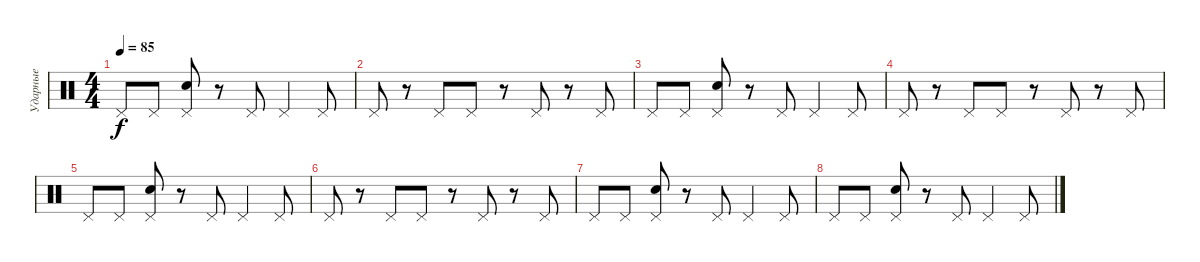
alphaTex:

\track ("Ударные" "Ударные") {instrument percussion}
\staff {score}
\articulation defaults
\ts (4 4)
\tempo 85
\clef neutral
\ks c "Pedal Hi-Hat (hit)".8{dy f} "Pedal Hi-Hat (hit)".8
("Pedal Hi-Hat (hit)" "Electric Snare (hit)").8 r.8 "Pedal Hi-Hat (hit)".8 "Pedal Hi-Hat (hit)".4 "Pedal Hi-Hat (hit)".8 |
"Pedal Hi-Hat (hit)".8 r.8 "Pedal Hi-Hat (hit)".8 "Pedal Hi-Hat (hit)".8 r.8 "Pedal Hi-Hat (hit)".8 r.8 "Pedal Hi-Hat (hit)".8 |
"Pedal Hi-Hat (hit)".8 "Pedal Hi-Hat (hit)".8 ("Pedal Hi-Hat (hit)" "Electric Snare (hit)").8 r.8 "Pedal Hi-Hat (hit)".8 "Pedal Hi-Hat (hit)".4 "Pedal Hi-Hat (hit)".8 |
"Pedal Hi-Hat (hit)".8 r.8 "Pedal Hi-Hat (hit)".8 "Pedal Hi-Hat (hit)".8 r.8 "Pedal Hi-Hat (hit)".8 r.8 "Pedal Hi-Hat (hit)".8 |
"Pedal Hi-Hat (hit)".8 "Pedal Hi-Hat (hit)".8 ("Pedal Hi-Hat (hit)" "Electric Snare (hit)").8 r.8 "Pedal Hi-Hat (hit)".8 "Pedal Hi-Hat (hit)".4 "Pedal Hi-Hat (hit)".8 |
"Pedal Hi-Hat (hit)".8 r.8 "Pedal Hi-Hat (hit)".8 "Pedal Hi-Hat (hit)".8 r.8 "Pedal Hi-Hat (hit)".8 r.8 "Pedal Hi-Hat (hit)".8 |
"Pedal Hi-Hat (hit)".8 "Pedal Hi-Hat (hit)".8 ("Pedal Hi-Hat (hit)" "Electric Snare (hit)").8 r.8 "Pedal Hi-Hat (hit)".8 "Pedal Hi-Hat (hit)".4 "Pedal Hi-Hat (hit)".8 |
"Pedal Hi-Hat (hit)".8 "Pedal Hi-Hat (hit)".8 ("Pedal Hi-Hat (hit)" "Electric Snare (hit)").8 r.8 "Pedal Hi-Hat (hit)".8 "Pedal Hi-Hat (hit)".4 "Pedal Hi-Hat (hit)".8
